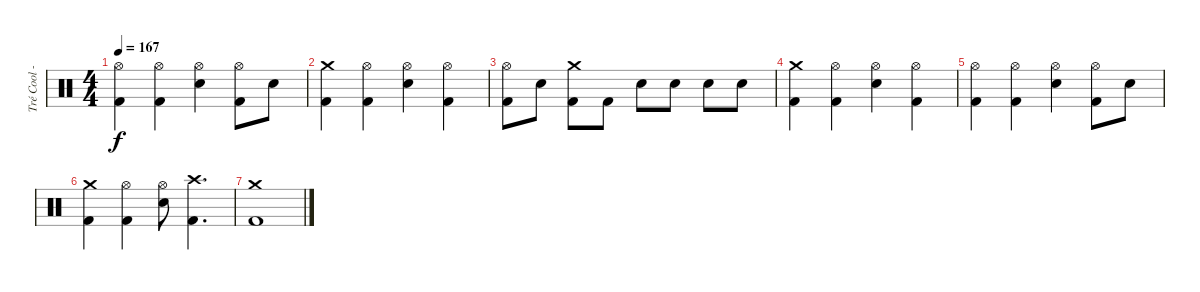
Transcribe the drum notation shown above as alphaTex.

\track ("Tré Cool - Drums" "Tré Cool -") {instrument percussion}
\staff {score}
\articulation defaults
\ts (4 4)
\tempo 167
\clef neutral
\ks c
("Hi-Hat (open)" "Kick (hit) 2").4{dy f} ("Hi-Hat (open)" "Kick (hit) 2").4 ("Hi-Hat (open)" "Electric Snare (hit)").4 ("Hi-Hat (open)" "Kick (hit) 2").8 "Electric Snare (hit)".8 |
("Crash medium (hit)" "Kick (hit) 2").4 ("Hi-Hat (open)" "Kick (hit) 2").4 ("Hi-Hat (open)" "Electric Snare (hit)").4 ("Hi-Hat (open)" "Kick (hit) 2").4 |
("Hi-Hat (open)" "Kick (hit) 2").8 "Electric Snare (hit)".8 ("Crash medium (hit)" "Kick (hit) 2").8 "Kick (hit) 2".8 "Electric Snare (hit)".8 "Electric Snare (hit)".8 "Electric Snare (hit)".8 "Electric Snare (hit)".8 |
("Crash medium (hit)" "Kick (hit) 2").4 ("Hi-Hat (open)" "Kick (hit) 2").4 ("Hi-Hat (open)" "Electric Snare (hit)").4 ("Hi-Hat (open)" "Kick (hit) 2").4 |
("Hi-Hat (open)" "Kick (hit) 2").4 ("Hi-Hat (open)" "Kick (hit) 2").4 ("Hi-Hat (open)" "Electric Snare (hit)").4 ("Hi-Hat (open)" "Kick (hit) 2").8 "Electric Snare (hit)".8 |
("Crash medium (hit)" "Kick (hit) 2").4 ("Hi-Hat (open)" "Kick (hit) 2").4 ("Hi-Hat (open)" "Electric Snare (hit)").8 ("Crash high (hit)" "Kick (hit) 2").4{d} |
("Crash medium (hit)" "Kick (hit) 2").1
